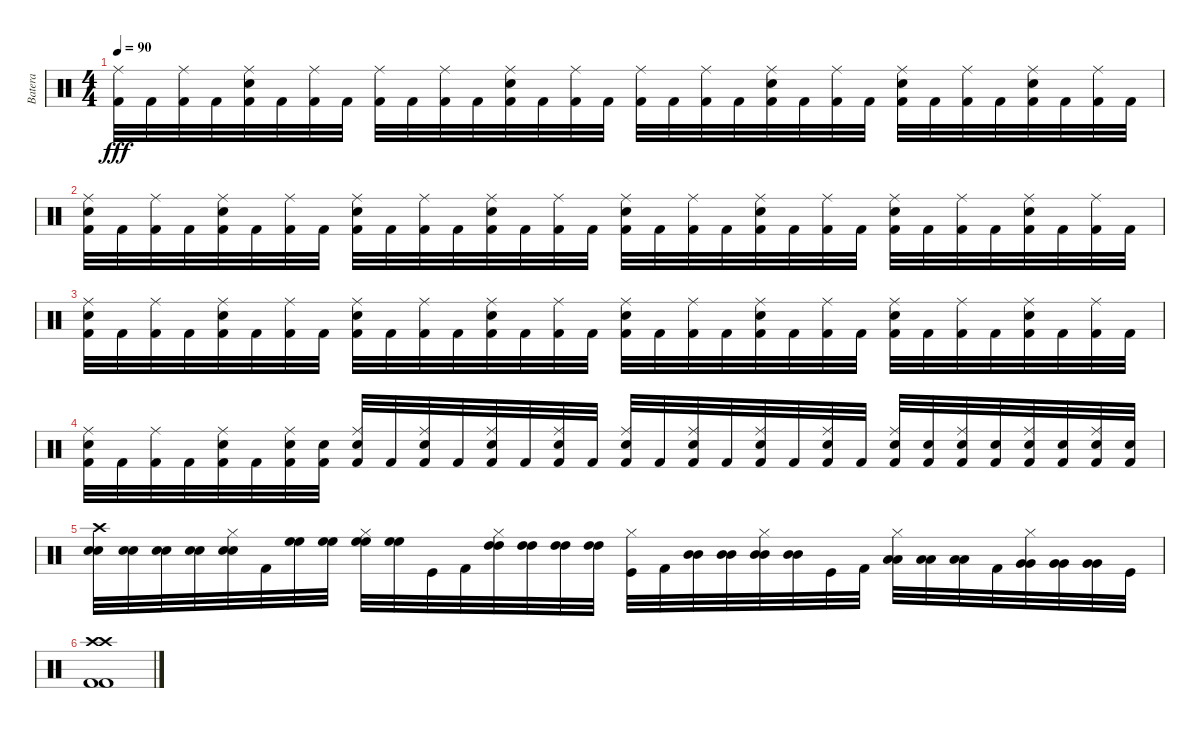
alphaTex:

\track ("Batera" "Batera") {instrument percussion}
\staff {score}
\articulation defaults
\ts (4 4)
\tempo 90
\clef neutral
\ks c
("Kick (hit) 2" "Ride (middle)").32{dy fff} "Kick (hit) 2".32 ("Kick (hit) 2" "Ride (middle)").32 "Kick (hit) 2".32 ("Snare (hit) 2" "Kick (hit) 2" "Ride (middle)").32 "Kick (hit) 2".32 ("Kick (hit) 2" "Ride (middle)").32 "Kick (hit) 2".32 ("Kick (hit) 2" "Ride (middle)").32 "Kick (hit) 2".32 ("Kick (hit) 2" "Ride (middle)").32 "Kick (hit) 2".32 ("Snare (hit) 2" "Kick (hit) 2" "Ride (middle)").32 "Kick (hit) 2".32 ("Kick (hit) 2" "Ride (middle)").32 "Kick (hit) 2".32 ("Kick (hit) 2" "Ride (middle)").32 "Kick (hit) 2".32 ("Kick (hit) 2" "Ride (middle)").32 "Kick (hit) 2".32 ("Snare (hit) 2" "Kick (hit) 2" "Ride (middle)").32 "Kick (hit) 2".32 ("Kick (hit) 2" "Ride (middle)").32 "Kick (hit) 2".32 ("Snare (hit) 2" "Kick (hit) 2" "Ride (middle)").32 "Kick (hit) 2".32 ("Kick (hit) 2" "Ride (middle)").32 "Kick (hit) 2".32 ("Snare (hit) 2" "Kick (hit) 2" "Ride (middle)").32 "Kick (hit) 2".32 ("Kick (hit) 2" "Ride (middle)").32 "Kick (hit) 2".32 |
("Snare (hit) 2" "Kick (hit) 2" "Ride (middle)").32 "Kick (hit) 2".32 ("Kick (hit) 2" "Ride (middle)").32 "Kick (hit) 2".32 ("Snare (hit) 2" "Kick (hit) 2" "Ride (middle)").32 "Kick (hit) 2".32 ("Kick (hit) 2" "Ride (middle)").32 "Kick (hit) 2".32 ("Snare (hit) 2" "Kick (hit) 2" "Ride (middle)").32 "Kick (hit) 2".32 ("Kick (hit) 2" "Ride (middle)").32 "Kick (hit) 2".32 ("Snare (hit) 2" "Kick (hit) 2" "Ride (middle)").32 "Kick (hit) 2".32 ("Kick (hit) 2" "Ride (middle)").32 "Kick (hit) 2".32 ("Snare (hit) 2" "Kick (hit) 2" "Ride (middle)").32 "Kick (hit) 2".32 ("Kick (hit) 2" "Ride (middle)").32 "Kick (hit) 2".32 ("Snare (hit) 2" "Kick (hit) 2" "Ride (middle)").32 "Kick (hit) 2".32 ("Kick (hit) 2" "Ride (middle)").32 "Kick (hit) 2".32 ("Snare (hit) 2" "Kick (hit) 2" "Ride (middle)").32 "Kick (hit) 2".32 ("Kick (hit) 2" "Ride (middle)").32 "Kick (hit) 2".32 ("Snare (hit) 2" "Kick (hit) 2" "Ride (middle)").32 "Kick (hit) 2".32 ("Kick (hit) 2" "Ride (middle)").32 "Kick (hit) 2".32 |
("Snare (hit) 2" "Kick (hit) 2" "Ride (middle)").32 "Kick (hit) 2".32 ("Kick (hit) 2" "Ride (middle)").32 "Kick (hit) 2".32 ("Snare (hit) 2" "Kick (hit) 2" "Ride (middle)").32 "Kick (hit) 2".32 ("Kick (hit) 2" "Ride (middle)").32 "Kick (hit) 2".32 ("Snare (hit) 2" "Kick (hit) 2" "Ride (middle)").32 "Kick (hit) 2".32 ("Kick (hit) 2" "Ride (middle)").32 "Kick (hit) 2".32 ("Snare (hit) 2" "Kick (hit) 2" "Ride (middle)").32 "Kick (hit) 2".32 ("Kick (hit) 2" "Ride (middle)").32 "Kick (hit) 2".32 ("Snare (hit) 2" "Kick (hit) 2" "Ride (middle)").32 "Kick (hit) 2".32 ("Kick (hit) 2" "Ride (middle)").32 "Kick (hit) 2".32 ("Snare (hit) 2" "Kick (hit) 2" "Ride (middle)").32 "Kick (hit) 2".32 ("Kick (hit) 2" "Ride (middle)").32 "Kick (hit) 2".32 ("Snare (hit) 2" "Kick (hit) 2" "Ride (middle)").32 "Kick (hit) 2".32 ("Kick (hit) 2" "Ride (middle)").32 "Kick (hit) 2".32 ("Snare (hit) 2" "Kick (hit) 2" "Ride (middle)").32 "Kick (hit) 2".32 ("Kick (hit) 2" "Ride (middle)").32 "Kick (hit) 2".32 |
("Snare (hit) 2" "Kick (hit) 2" "Ride (middle)").32 "Kick (hit) 2".32 ("Kick (hit) 2" "Ride (middle)").32 "Kick (hit) 2".32 ("Snare (hit) 2" "Kick (hit) 2" "Ride (middle)").32 "Kick (hit) 2".32 ("Snare (hit) 2" "Kick (hit) 2" "Ride (middle)").32 ("Snare (hit) 2" "Kick (hit) 2").32 ("Snare (hit) 2" "Kick (hit) 2" "Ride (middle)").32 "Kick (hit) 2".32 ("Snare (hit) 2" "Kick (hit) 2" "Ride (middle)").32 "Kick (hit) 2".32 ("Snare (hit) 2" "Kick (hit) 2" "Ride (middle)").32 "Kick (hit) 2".32 ("Snare (hit) 2" "Kick (hit) 2" "Ride (middle)").32 "Kick (hit) 2".32 ("Snare (hit) 2" "Kick (hit) 2" "Ride (middle)").32 "Kick (hit) 2".32 ("Snare (hit) 2" "Kick (hit) 2" "Ride (middle)").32 "Kick (hit) 2".32 ("Snare (hit) 2" "Kick (hit) 2" "Ride (middle)").32 "Kick (hit) 2".32 ("Snare (hit) 2" "Kick (hit) 2" "Ride (middle)").32 "Kick (hit) 2".32 ("Snare (hit) 2" "Kick (hit) 2" "Ride (middle)").32 ("Snare (hit) 2" "Kick (hit) 2").32 ("Snare (hit) 2" "Kick (hit) 2" "Ride (middle)").32 ("Snare (hit) 2" "Kick (hit) 2").32 ("Snare (hit) 2" "Kick (hit) 2" "Ride (middle)").32 ("Snare (hit) 2" "Kick (hit) 2").32 ("Snare (hit) 2" "Kick (hit) 2" "Ride (middle)").32 ("Snare (hit) 2" "Kick (hit) 2").32 |
("Snare (hit) 2" "Snare (hit) 2" "Crash high (hit)").32 ("Snare (hit) 2" "Snare (hit) 2").32 ("Snare (hit) 2" "Snare (hit) 2").32 ("Snare (hit) 2" "Snare (hit) 2").32 ("Snare (hit) 2" "Snare (hit) 2" "Hi-Hat (closed)").32 "Kick (hit) 2".32 ("High Floor Tom (hit)" "High Floor Tom (hit)").32 ("High Floor Tom (hit)" "High Floor Tom (hit)").32 ("High Floor Tom (hit)" "High Floor Tom (hit)" "Hi-Hat (closed)").32 ("High Floor Tom (hit)" "High Floor Tom (hit)").32 "Kick (hit)".32 "Kick (hit) 2".32 ("High Tom (hit)" "High Tom (hit)" "Hi-Hat (closed)").32 ("High Tom (hit)" "High Tom (hit)").32 ("High Tom (hit)" "High Tom (hit)").32 ("High Tom (hit)" "High Tom (hit)").32 ("Kick (hit)" "Hi-Hat (closed)").32 "Kick (hit) 2".32 ("Mid Tom (hit)" "Mid Tom (hit)").32 ("Mid Tom (hit)" "Mid Tom (hit)").32 ("Mid Tom (hit)" "Mid Tom (hit)" "Hi-Hat (closed)").32 ("Mid Tom (hit)" "Mid Tom (hit)").32 "Kick (hit)".32 "Kick (hit) 2".32 ("Low Tom (hit)" "Low Tom (hit)" "Hi-Hat (closed)").32 ("Low Tom (hit)" "Low Tom (hit)").32 ("Low Tom (hit)" "Low Tom (hit)").32 "Kick (hit) 2".32 ("Very Low Tom (hit)" "Very Low Tom (hit)" "Hi-Hat (closed)").32 ("Very Low Tom (hit)" "Very Low Tom (hit)").32 ("Very Low Tom (hit)" "Very Low Tom (hit)").32 "Kick (hit)".32 |
("Crash high (hit)" "Crash high (hit)" "Kick (hit) 2" "Kick (hit) 2").1
